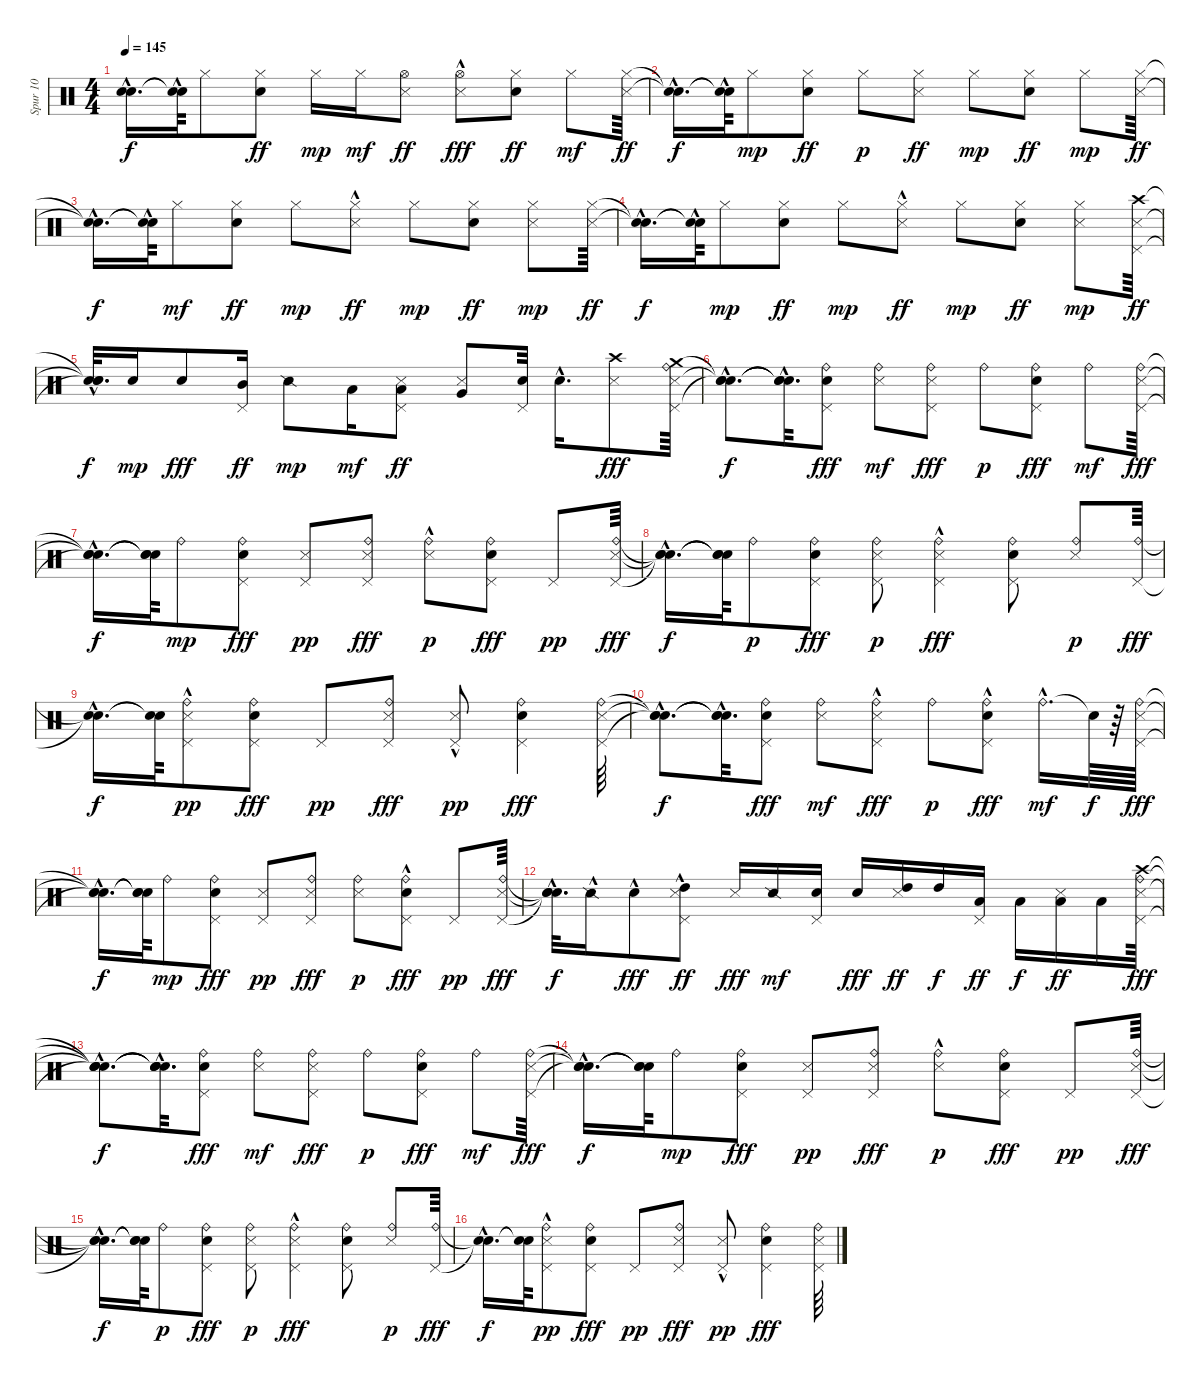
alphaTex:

\track ("Spur 10" "Spur 10") {instrument percussion}
\staff {score}
\articulation defaults
\ts (4 4)
\tempo 145
\clef neutral
\ks c
("Snare (hit)"{hac t} "Snare (hit)"{hac t}).16{d dy f} ("Snare (hit)"{hac t} "Snare (hit)"{t}).64 "Hi-Hat (closed)".8 ("Electric Snare (hit)" "Hi-Hat (closed)").8{dy ff} "Hi-Hat (closed)".16{dy mp} "Hi-Hat (closed)".16{dy mf} ("Metronome (hit)" "Hi-Hat (open)").8{dy ff} ("Metronome (hit)"{hac} "Hi-Hat (open)").8{dy fff} ("Electric Snare (hit)" "Hi-Hat (closed)").8{dy ff} "Hi-Hat (closed)".8{dy mf} ("Metronome (hit)" "Hi-Hat (closed)").64{dy ff} |
("Snare (hit)"{hac t} "Snare (hit)"{hac t}).16{d dy f} ("Snare (hit)"{hac t} "Snare (hit)"{t}).64 "Hi-Hat (closed)".8{dy mp} ("Electric Snare (hit)" "Hi-Hat (closed)").8{dy ff} "Hi-Hat (closed)".8{dy p} ("Metronome (hit)" "Hi-Hat (closed)").8{dy ff} "Hi-Hat (closed)".8{dy mp} ("Electric Snare (hit)" "Hi-Hat (closed)").8{dy ff} "Hi-Hat (closed)".8{dy mp} ("Metronome (hit)" "Hi-Hat (closed)").64{dy ff} |
("Snare (hit)"{hac t} "Snare (hit)"{hac t}).16{d dy f} ("Snare (hit)"{hac t} "Snare (hit)"{t}).64 "Hi-Hat (closed)".8{dy mf} ("Electric Snare (hit)" "Hi-Hat (closed)").8{dy ff} "Hi-Hat (closed)".8{dy mp} ("Metronome (hit)"{hac} "Hi-Hat (closed)").8{dy ff} "Hi-Hat (closed)".8{dy mp} ("Electric Snare (hit)" "Hi-Hat (closed)").8{dy ff} ("Metronome (hit)" "Hi-Hat (closed)").8{dy mp} ("Metronome (hit)" "Hi-Hat (closed)").64{dy ff} |
("Snare (hit)"{hac t} "Snare (hit)"{hac t}).16{d dy f} ("Snare (hit)"{hac t} "Snare (hit)"{t}).64 "Hi-Hat (closed)".8{dy mp} ("Electric Snare (hit)" "Hi-Hat (closed)").8{dy ff} "Hi-Hat (closed)".8{dy mp} ("Metronome (hit)"{hac} "Hi-Hat (closed)").8{dy ff} "Hi-Hat (closed)".8{dy mp} ("Electric Snare (hit)" "Hi-Hat (closed)").8{dy ff} ("Metronome (hit)" "Hi-Hat (closed)").8{dy mp} ("Metronome (hit)" "Pedal Hi-Hat (hit)" "Crash high (hit)").64{dy ff} |
("Snare (hit)"{hac t} "Snare (hit)"{hac t} "Snare (hit)"{hac t}).32{d dy f} "Electric Snare (hit)".16{dy mp} "Electric Snare (hit)".8{dy fff} ("Pedal Hi-Hat (hit)" "Mid Tom (hit)").16{dy ff} "Snare (side stick) 2".8{dy mp} "Low Tom (hit)".16{dy mf} ("Metronome (hit)" "Low Floor Tom (hit)" "Pedal Hi-Hat (hit)").8{dy ff} ("Metronome (hit)" "Very Low Tom (hit)").8 ("Electric Snare (hit)" "Pedal Hi-Hat (hit)").32 "Electric Snare (hit)"{hac}.16{d} ("Metronome (hit)" "Crash high (hit)").8{dy fff} ("Crash medium (hit)" "Metronome (hit)" "Pedal Hi-Hat (hit)" "Ride (bell)").64 |
("Snare (hit)"{hac t} "Snare (hit)"{hac t} "Snare (hit)"{hac t}).8{d dy f} ("Snare (hit)"{t} "Snare (hit)"{hac t} "Snare (hit)"{hac t}).32{d} ("Electric Snare (hit)" "Pedal Hi-Hat (hit)" "Ride (bell)").8{dy fff} ("Metronome (hit)" "Ride (bell)").8{dy mf} ("Metronome (hit)" "Pedal Hi-Hat (hit)" "Ride (bell)").8{dy fff} "Ride (bell)".8{dy p} ("Electric Snare (hit)" "Pedal Hi-Hat (hit)" "Ride (bell)").8{dy fff} "Ride (bell)".8{dy mf} ("Metronome (hit)" "Pedal Hi-Hat (hit)" "Ride (bell)").64{dy fff} |
("Snare (hit)"{hac t} "Snare (hit)"{hac t} "Snare (hit)"{hac t}).16{d dy f} ("Snare (hit)"{t} "Snare (hit)"{t} "Snare (hit)"{t}).64 "Ride (bell)".8{dy mp} ("Electric Snare (hit)" "Pedal Hi-Hat (hit)" "Ride (bell)").8{dy fff} ("Metronome (hit)" "Pedal Hi-Hat (hit)").8{dy pp} ("Metronome (hit)" "Pedal Hi-Hat (hit)" "Ride (bell)").8{dy fff} ("Metronome (hit)"{hac} "Ride (bell)").8{dy p} ("Electric Snare (hit)" "Pedal Hi-Hat (hit)" "Ride (bell)").8{dy fff} "Pedal Hi-Hat (hit)".8{dy pp} ("Metronome (hit)" "Pedal Hi-Hat (hit)" "Ride (bell)").64{dy fff} |
("Snare (hit)"{hac t} "Snare (hit)"{hac t} "Snare (hit)"{hac t}).16{d dy f} ("Snare (hit)"{t} "Snare (hit)"{t} "Snare (hit)"{t}).64 "Ride (bell)".8{dy p} ("Electric Snare (hit)" "Pedal Hi-Hat (hit)" "Ride (bell)").8{dy fff} ("Metronome (hit)" "Pedal Hi-Hat (hit)" "Ride (bell)").8{dy p} ("Metronome (hit)"{hac} "Pedal Hi-Hat (hit)" "Ride (bell)").4{dy fff} ("Electric Snare (hit)" "Pedal Hi-Hat (hit)" "Ride (bell)").8 ("Metronome (hit)" "Ride (bell)").8{dy p} ("Pedal Hi-Hat (hit)" "Ride (bell)").64{dy fff} |
("Snare (hit)"{hac t} "Snare (hit)"{hac t}).16{d dy f} ("Snare (hit)"{t} "Snare (hit)"{t}).64 ("Metronome (hit)"{hac} "Pedal Hi-Hat (hit)" "Ride (bell)").8{dy pp} ("Electric Snare (hit)" "Pedal Hi-Hat (hit)" "Ride (bell)").8{dy fff} "Pedal Hi-Hat (hit)".8{dy pp} ("Metronome (hit)" "Pedal Hi-Hat (hit)" "Ride (bell)").8{dy fff} ("Metronome (hit)"{hac} "Pedal Hi-Hat (hit)").8{dy pp} ("Electric Snare (hit)" "Pedal Hi-Hat (hit)" "Ride (bell)").4{dy fff} ("Metronome (hit)" "Pedal Hi-Hat (hit)" "Ride (bell)").64 |
("Snare (hit)"{hac t} "Snare (hit)"{hac t} "Snare (hit)"{hac t}).8{d dy f} ("Snare (hit)"{t} "Snare (hit)"{hac t} "Snare (hit)"{hac t}).32{d} ("Electric Snare (hit)" "Pedal Hi-Hat (hit)" "Ride (bell)").8{dy fff} ("Metronome (hit)" "Ride (bell)").8{dy mf} ("Metronome (hit)"{hac} "Pedal Hi-Hat (hit)" "Ride (bell)").8{dy fff} "Ride (bell)".8{dy p} ("Electric Snare (hit)" "Pedal Hi-Hat (hit)"{hac} "Ride (bell)").8{dy fff} "Ride (bell)"{hac}.16{d dy mf} "Snare (hit)"{t}.64{dy f} r.64 ("Metronome (hit)" "Pedal Hi-Hat (hit)" "Ride (bell)").64{dy fff} |
("Snare (hit)"{hac t} "Snare (hit)"{hac t} "Snare (hit)"{hac t}).16{d dy f} ("Snare (hit)"{t} "Snare (hit)"{t} "Snare (hit)"{t}).64 "Ride (bell)".8{dy mp} ("Electric Snare (hit)" "Pedal Hi-Hat (hit)" "Ride (bell)").8{dy fff} ("Metronome (hit)" "Pedal Hi-Hat (hit)").8{dy pp} ("Metronome (hit)" "Pedal Hi-Hat (hit)" "Ride (bell)").8{dy fff} ("Metronome (hit)" "Ride (bell)").8{dy p} ("Electric Snare (hit)"{hac} "Pedal Hi-Hat (hit)" "Ride (bell)").8{dy fff} "Pedal Hi-Hat (hit)".8{dy pp} ("Metronome (hit)" "Pedal Hi-Hat (hit)" "Ride (bell)").64{dy fff} |
("Snare (hit)"{hac t} "Snare (hit)"{hac t} "Snare (hit)"{hac t}).32{d dy f} "Snare (side stick) 2"{hac}.16 "Electric Snare (hit)"{hac}.8{dy fff} ("Metronome (hit)" "Pedal Hi-Hat (hit)" "High Tom (hit)"{hac}).8{dy ff} "Metronome (hit)".16{dy fff} "Snare (side stick) 2".16{dy mf} ("Electric Snare (hit)" "Pedal Hi-Hat (hit)").16 "Electric Snare (hit)".16{dy fff} ("Metronome (hit)" "High Tom (hit)").16{dy ff} "High Tom (hit)".16{dy f} ("Pedal Hi-Hat (hit)" "Low Tom (hit)").16{dy ff} "Low Tom (hit)".16{dy f} ("Metronome (hit)" "Low Floor Tom (hit)").16{dy ff} "Low Floor Tom (hit)".16 ("Crash high (hit)" "Metronome (hit)" "Pedal Hi-Hat (hit)" "Ride (bell)").64{dy fff} |
("Snare (hit)"{hac t} "Snare (hit)"{hac t} "Snare (hit)"{hac t} "Snare (hit)"{hac t}).8{d dy f} ("Snare (hit)"{t} "Snare (hit)"{t} "Snare (hit)"{hac t} "Snare (hit)"{hac t}).32{d} ("Electric Snare (hit)" "Pedal Hi-Hat (hit)" "Ride (bell)").8{dy fff} ("Metronome (hit)" "Ride (bell)").8{dy mf} ("Metronome (hit)" "Pedal Hi-Hat (hit)" "Ride (bell)").8{dy fff} "Ride (bell)".8{dy p} ("Electric Snare (hit)" "Pedal Hi-Hat (hit)" "Ride (bell)").8{dy fff} "Ride (bell)".8{dy mf} ("Metronome (hit)" "Pedal Hi-Hat (hit)" "Ride (bell)").64{dy fff} |
("Snare (hit)"{hac t} "Snare (hit)"{hac t} "Snare (hit)"{hac t}).16{d dy f} ("Snare (hit)"{t} "Snare (hit)"{t} "Snare (hit)"{t}).64 "Ride (bell)".8{dy mp} ("Electric Snare (hit)" "Pedal Hi-Hat (hit)" "Ride (bell)").8{dy fff} ("Metronome (hit)" "Pedal Hi-Hat (hit)").8{dy pp} ("Metronome (hit)" "Pedal Hi-Hat (hit)" "Ride (bell)").8{dy fff} ("Metronome (hit)"{hac} "Ride (bell)").8{dy p} ("Electric Snare (hit)" "Pedal Hi-Hat (hit)" "Ride (bell)").8{dy fff} "Pedal Hi-Hat (hit)".8{dy pp} ("Metronome (hit)" "Pedal Hi-Hat (hit)" "Ride (bell)").64{dy fff} |
("Snare (hit)"{hac t} "Snare (hit)"{hac t} "Snare (hit)"{hac t}).16{d dy f} ("Snare (hit)"{t} "Snare (hit)"{t} "Snare (hit)"{t}).64 "Ride (bell)".8{dy p} ("Electric Snare (hit)" "Pedal Hi-Hat (hit)" "Ride (bell)").8{dy fff} ("Metronome (hit)" "Pedal Hi-Hat (hit)" "Ride (bell)").8{dy p} ("Metronome (hit)"{hac} "Pedal Hi-Hat (hit)" "Ride (bell)").4{dy fff} ("Electric Snare (hit)" "Pedal Hi-Hat (hit)" "Ride (bell)").8 ("Metronome (hit)" "Ride (bell)").8{dy p} ("Pedal Hi-Hat (hit)" "Ride (bell)").64{dy fff} |
("Snare (hit)"{hac t} "Snare (hit)"{hac t}).16{d dy f} ("Snare (hit)"{t} "Snare (hit)"{t}).64 ("Metronome (hit)"{hac} "Pedal Hi-Hat (hit)" "Ride (bell)").8{dy pp} ("Electric Snare (hit)" "Pedal Hi-Hat (hit)" "Ride (bell)").8{dy fff} "Pedal Hi-Hat (hit)".8{dy pp} ("Metronome (hit)" "Pedal Hi-Hat (hit)" "Ride (bell)").8{dy fff} ("Metronome (hit)"{hac} "Pedal Hi-Hat (hit)").8{dy pp} ("Electric Snare (hit)" "Pedal Hi-Hat (hit)" "Ride (bell)").4{dy fff} ("Metronome (hit)" "Pedal Hi-Hat (hit)" "Ride (bell)").64
